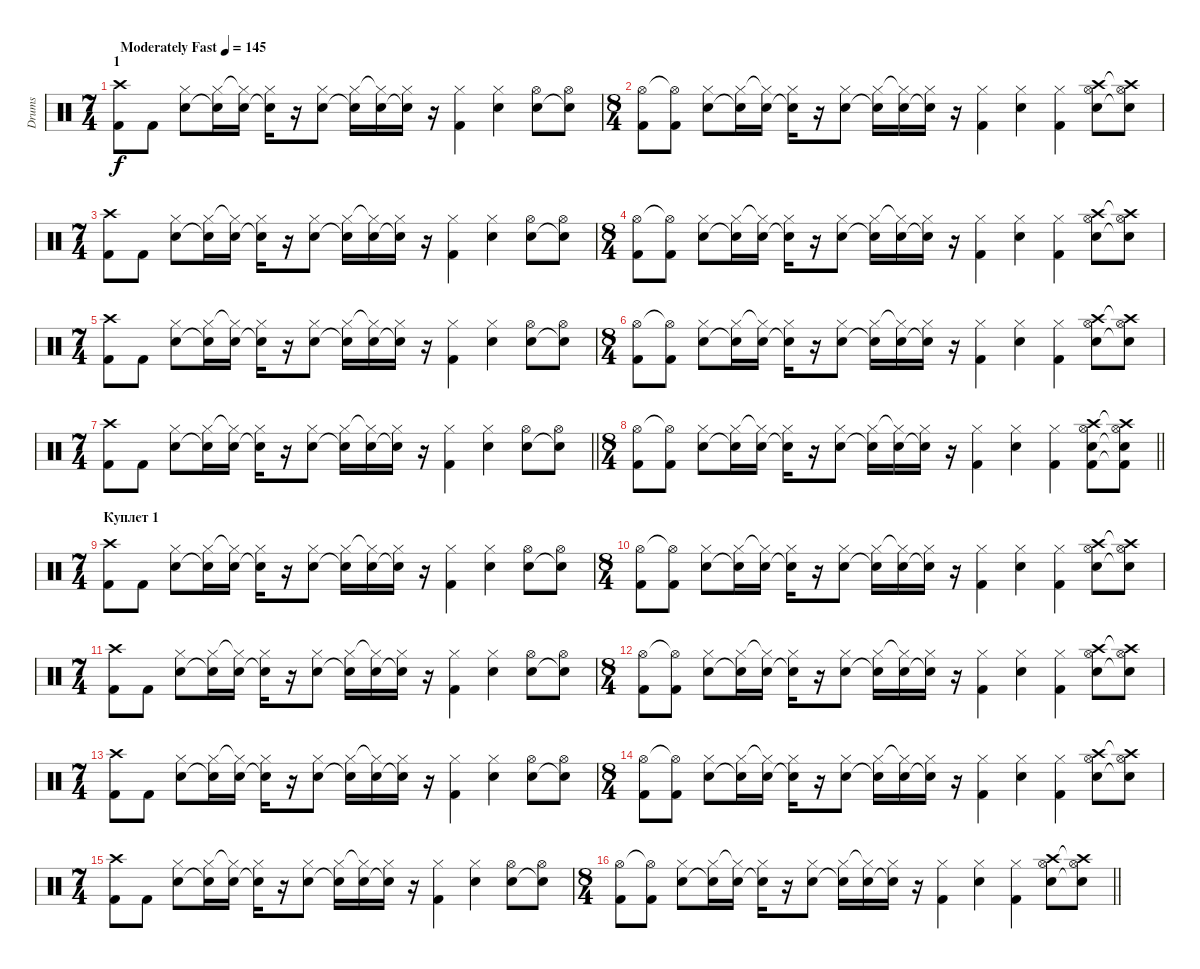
\track ("Drums" "Drums") {instrument percussion}
\staff {score}
\articulation defaults
\ts (7 4)
\section ("" "1")
\tempo (145 "Moderately Fast")
\clef neutral
\ks c
("Crash high (hit)" "Kick (hit) 2").8{dy f} "Kick (hit) 2".8 ("Hi-Hat (closed)" "Electric Snare (hit)").8 ("Hi-Hat (closed)" "Electric Snare (hit)"{t}).16 ("Hi-Hat (closed)"{t} "Electric Snare (hit)").16 ("Hi-Hat (closed)" "Electric Snare (hit)"{t}).16 r.16 ("Hi-Hat (closed)" "Electric Snare (hit)").8 ("Hi-Hat (closed)" "Electric Snare (hit)"{t}).16 ("Hi-Hat (closed)"{t} "Electric Snare (hit)").16 ("Hi-Hat (closed)" "Electric Snare (hit)"{t}).16 r.16 ("Hi-Hat (closed)" "Kick (hit) 2").4 ("Hi-Hat (closed)" "Electric Snare (hit)").4 ("Hi-Hat (open)" "Electric Snare (hit)").8 ("Hi-Hat (open)" "Electric Snare (hit)"{t}).8 |
\ts (8 4)
("Hi-Hat (open)" "Kick (hit) 2").8 ("Hi-Hat (open)"{t} "Kick (hit) 2").8 ("Hi-Hat (closed)" "Electric Snare (hit)").8 ("Hi-Hat (closed)" "Electric Snare (hit)"{t}).16 ("Hi-Hat (closed)"{t} "Electric Snare (hit)").16 ("Hi-Hat (closed)" "Electric Snare (hit)"{t}).16 r.16 ("Hi-Hat (closed)" "Electric Snare (hit)").8 ("Hi-Hat (closed)" "Electric Snare (hit)"{t}).16 ("Hi-Hat (closed)"{t} "Electric Snare (hit)").16 ("Hi-Hat (closed)" "Electric Snare (hit)"{t}).16 r.16 ("Hi-Hat (closed)" "Kick (hit) 2").4 ("Hi-Hat (closed)" "Electric Snare (hit)").4 ("Hi-Hat (closed)" "Kick (hit) 2").4 ("Crash high (hit)" "Hi-Hat (open)" "Electric Snare (hit)").8 ("Crash high (hit)"{t} "Hi-Hat (open)" "Electric Snare (hit)"{t}).8 |
\ts (7 4)
("Crash high (hit)" "Kick (hit) 2").8 "Kick (hit) 2".8 ("Hi-Hat (closed)" "Electric Snare (hit)").8 ("Hi-Hat (closed)" "Electric Snare (hit)"{t}).16 ("Hi-Hat (closed)"{t} "Electric Snare (hit)").16 ("Hi-Hat (closed)" "Electric Snare (hit)"{t}).16 r.16 ("Hi-Hat (closed)" "Electric Snare (hit)").8 ("Hi-Hat (closed)" "Electric Snare (hit)"{t}).16 ("Hi-Hat (closed)"{t} "Electric Snare (hit)").16 ("Hi-Hat (closed)" "Electric Snare (hit)"{t}).16 r.16 ("Hi-Hat (closed)" "Kick (hit) 2").4 ("Hi-Hat (closed)" "Electric Snare (hit)").4 ("Hi-Hat (open)" "Electric Snare (hit)").8 ("Hi-Hat (open)" "Electric Snare (hit)"{t}).8 |
\ts (8 4)
("Hi-Hat (open)" "Kick (hit) 2").8 ("Hi-Hat (open)"{t} "Kick (hit) 2").8 ("Hi-Hat (closed)" "Electric Snare (hit)").8 ("Hi-Hat (closed)" "Electric Snare (hit)"{t}).16 ("Hi-Hat (closed)"{t} "Electric Snare (hit)").16 ("Hi-Hat (closed)" "Electric Snare (hit)"{t}).16 r.16 ("Hi-Hat (closed)" "Electric Snare (hit)").8 ("Hi-Hat (closed)" "Electric Snare (hit)"{t}).16 ("Hi-Hat (closed)"{t} "Electric Snare (hit)").16 ("Hi-Hat (closed)" "Electric Snare (hit)"{t}).16 r.16 ("Hi-Hat (closed)" "Kick (hit) 2").4 ("Hi-Hat (closed)" "Electric Snare (hit)").4 ("Hi-Hat (closed)" "Kick (hit) 2").4 ("Crash high (hit)" "Hi-Hat (open)" "Electric Snare (hit)").8 ("Crash high (hit)"{t} "Hi-Hat (open)" "Electric Snare (hit)"{t}).8 |
\ts (7 4)
("Crash high (hit)" "Kick (hit) 2").8 "Kick (hit) 2".8 ("Hi-Hat (closed)" "Electric Snare (hit)").8 ("Hi-Hat (closed)" "Electric Snare (hit)"{t}).16 ("Hi-Hat (closed)"{t} "Electric Snare (hit)").16 ("Hi-Hat (closed)" "Electric Snare (hit)"{t}).16 r.16 ("Hi-Hat (closed)" "Electric Snare (hit)").8 ("Hi-Hat (closed)" "Electric Snare (hit)"{t}).16 ("Hi-Hat (closed)"{t} "Electric Snare (hit)").16 ("Hi-Hat (closed)" "Electric Snare (hit)"{t}).16 r.16 ("Hi-Hat (closed)" "Kick (hit) 2").4 ("Hi-Hat (closed)" "Electric Snare (hit)").4 ("Hi-Hat (open)" "Electric Snare (hit)").8 ("Hi-Hat (open)" "Electric Snare (hit)"{t}).8 |
\ts (8 4)
("Hi-Hat (open)" "Kick (hit) 2").8 ("Hi-Hat (open)"{t} "Kick (hit) 2").8 ("Hi-Hat (closed)" "Electric Snare (hit)").8 ("Hi-Hat (closed)" "Electric Snare (hit)"{t}).16 ("Hi-Hat (closed)"{t} "Electric Snare (hit)").16 ("Hi-Hat (closed)" "Electric Snare (hit)"{t}).16 r.16 ("Hi-Hat (closed)" "Electric Snare (hit)").8 ("Hi-Hat (closed)" "Electric Snare (hit)"{t}).16 ("Hi-Hat (closed)"{t} "Electric Snare (hit)").16 ("Hi-Hat (closed)" "Electric Snare (hit)"{t}).16 r.16 ("Hi-Hat (closed)" "Kick (hit) 2").4 ("Hi-Hat (closed)" "Electric Snare (hit)").4 ("Hi-Hat (closed)" "Kick (hit) 2").4 ("Crash high (hit)" "Hi-Hat (open)" "Electric Snare (hit)").8 ("Crash high (hit)"{t} "Hi-Hat (open)" "Electric Snare (hit)"{t}).8 |
\ts (7 4)
\barLineRight lightlight
("Crash high (hit)" "Kick (hit) 2").8 "Kick (hit) 2".8 ("Hi-Hat (closed)" "Electric Snare (hit)").8 ("Hi-Hat (closed)" "Electric Snare (hit)"{t}).16 ("Hi-Hat (closed)"{t} "Electric Snare (hit)").16 ("Hi-Hat (closed)" "Electric Snare (hit)"{t}).16 r.16 ("Hi-Hat (closed)" "Electric Snare (hit)").8 ("Hi-Hat (closed)" "Electric Snare (hit)"{t}).16 ("Hi-Hat (closed)"{t} "Electric Snare (hit)").16 ("Hi-Hat (closed)" "Electric Snare (hit)"{t}).16 r.16 ("Hi-Hat (closed)" "Kick (hit) 2").4 ("Hi-Hat (closed)" "Electric Snare (hit)").4 ("Hi-Hat (open)" "Electric Snare (hit)").8 ("Hi-Hat (open)" "Electric Snare (hit)"{t}).8 |
\ts (8 4)
\barLineRight lightlight
("Hi-Hat (open)" "Kick (hit) 2").8 ("Hi-Hat (open)"{t} "Kick (hit) 2").8 ("Hi-Hat (closed)" "Electric Snare (hit)").8 ("Hi-Hat (closed)" "Electric Snare (hit)"{t}).16 ("Hi-Hat (closed)"{t} "Electric Snare (hit)").16 ("Hi-Hat (closed)" "Electric Snare (hit)"{t}).16 r.16 ("Hi-Hat (closed)" "Electric Snare (hit)").8 ("Hi-Hat (closed)" "Electric Snare (hit)"{t}).16 ("Hi-Hat (closed)"{t} "Electric Snare (hit)").16 ("Hi-Hat (closed)" "Electric Snare (hit)"{t}).16 r.16 ("Hi-Hat (closed)" "Kick (hit) 2").4 ("Hi-Hat (closed)" "Electric Snare (hit)").4 ("Hi-Hat (closed)" "Kick (hit) 2").4 ("Crash high (hit)" "Hi-Hat (open)" "Electric Snare (hit)" "Kick (hit) 2").8 ("Crash high (hit)"{t} "Hi-Hat (open)" "Electric Snare (hit)"{t} "Kick (hit) 2"{t}).8 |
\ts (7 4)
\section ("" "Куплет 1")
("Crash high (hit)" "Kick (hit) 2").8 "Kick (hit) 2".8 ("Hi-Hat (closed)" "Electric Snare (hit)").8 ("Hi-Hat (closed)" "Electric Snare (hit)"{t}).16 ("Hi-Hat (closed)"{t} "Electric Snare (hit)").16 ("Hi-Hat (closed)" "Electric Snare (hit)"{t}).16 r.16 ("Hi-Hat (closed)" "Electric Snare (hit)").8 ("Hi-Hat (closed)" "Electric Snare (hit)"{t}).16 ("Hi-Hat (closed)"{t} "Electric Snare (hit)").16 ("Hi-Hat (closed)" "Electric Snare (hit)"{t}).16 r.16 ("Hi-Hat (closed)" "Kick (hit) 2").4 ("Hi-Hat (closed)" "Electric Snare (hit)").4 ("Hi-Hat (open)" "Electric Snare (hit)").8 ("Hi-Hat (open)" "Electric Snare (hit)"{t}).8 |
\ts (8 4)
("Hi-Hat (open)" "Kick (hit) 2").8 ("Hi-Hat (open)"{t} "Kick (hit) 2").8 ("Hi-Hat (closed)" "Electric Snare (hit)").8 ("Hi-Hat (closed)" "Electric Snare (hit)"{t}).16 ("Hi-Hat (closed)"{t} "Electric Snare (hit)").16 ("Hi-Hat (closed)" "Electric Snare (hit)"{t}).16 r.16 ("Hi-Hat (closed)" "Electric Snare (hit)").8 ("Hi-Hat (closed)" "Electric Snare (hit)"{t}).16 ("Hi-Hat (closed)"{t} "Electric Snare (hit)").16 ("Hi-Hat (closed)" "Electric Snare (hit)"{t}).16 r.16 ("Hi-Hat (closed)" "Kick (hit) 2").4 ("Hi-Hat (closed)" "Electric Snare (hit)").4 ("Hi-Hat (closed)" "Kick (hit) 2").4 ("Crash high (hit)" "Hi-Hat (open)" "Electric Snare (hit)").8 ("Crash high (hit)"{t} "Hi-Hat (open)" "Electric Snare (hit)"{t}).8 |
\ts (7 4)
("Crash high (hit)" "Kick (hit) 2").8 "Kick (hit) 2".8 ("Hi-Hat (closed)" "Electric Snare (hit)").8 ("Hi-Hat (closed)" "Electric Snare (hit)"{t}).16 ("Hi-Hat (closed)"{t} "Electric Snare (hit)").16 ("Hi-Hat (closed)" "Electric Snare (hit)"{t}).16 r.16 ("Hi-Hat (closed)" "Electric Snare (hit)").8 ("Hi-Hat (closed)" "Electric Snare (hit)"{t}).16 ("Hi-Hat (closed)"{t} "Electric Snare (hit)").16 ("Hi-Hat (closed)" "Electric Snare (hit)"{t}).16 r.16 ("Hi-Hat (closed)" "Kick (hit) 2").4 ("Hi-Hat (closed)" "Electric Snare (hit)").4 ("Hi-Hat (open)" "Electric Snare (hit)").8 ("Hi-Hat (open)" "Electric Snare (hit)"{t}).8 |
\ts (8 4)
("Hi-Hat (open)" "Kick (hit) 2").8 ("Hi-Hat (open)"{t} "Kick (hit) 2").8 ("Hi-Hat (closed)" "Electric Snare (hit)").8 ("Hi-Hat (closed)" "Electric Snare (hit)"{t}).16 ("Hi-Hat (closed)"{t} "Electric Snare (hit)").16 ("Hi-Hat (closed)" "Electric Snare (hit)"{t}).16 r.16 ("Hi-Hat (closed)" "Electric Snare (hit)").8 ("Hi-Hat (closed)" "Electric Snare (hit)"{t}).16 ("Hi-Hat (closed)"{t} "Electric Snare (hit)").16 ("Hi-Hat (closed)" "Electric Snare (hit)"{t}).16 r.16 ("Hi-Hat (closed)" "Kick (hit) 2").4 ("Hi-Hat (closed)" "Electric Snare (hit)").4 ("Hi-Hat (closed)" "Kick (hit) 2").4 ("Crash high (hit)" "Hi-Hat (open)" "Electric Snare (hit)").8 ("Crash high (hit)"{t} "Hi-Hat (open)" "Electric Snare (hit)"{t}).8 |
\ts (7 4)
("Crash high (hit)" "Kick (hit) 2").8 "Kick (hit) 2".8 ("Hi-Hat (closed)" "Electric Snare (hit)").8 ("Hi-Hat (closed)" "Electric Snare (hit)"{t}).16 ("Hi-Hat (closed)"{t} "Electric Snare (hit)").16 ("Hi-Hat (closed)" "Electric Snare (hit)"{t}).16 r.16 ("Hi-Hat (closed)" "Electric Snare (hit)").8 ("Hi-Hat (closed)" "Electric Snare (hit)"{t}).16 ("Hi-Hat (closed)"{t} "Electric Snare (hit)").16 ("Hi-Hat (closed)" "Electric Snare (hit)"{t}).16 r.16 ("Hi-Hat (closed)" "Kick (hit) 2").4 ("Hi-Hat (closed)" "Electric Snare (hit)").4 ("Hi-Hat (open)" "Electric Snare (hit)").8 ("Hi-Hat (open)" "Electric Snare (hit)"{t}).8 |
\ts (8 4)
("Hi-Hat (open)" "Kick (hit) 2").8 ("Hi-Hat (open)"{t} "Kick (hit) 2").8 ("Hi-Hat (closed)" "Electric Snare (hit)").8 ("Hi-Hat (closed)" "Electric Snare (hit)"{t}).16 ("Hi-Hat (closed)"{t} "Electric Snare (hit)").16 ("Hi-Hat (closed)" "Electric Snare (hit)"{t}).16 r.16 ("Hi-Hat (closed)" "Electric Snare (hit)").8 ("Hi-Hat (closed)" "Electric Snare (hit)"{t}).16 ("Hi-Hat (closed)"{t} "Electric Snare (hit)").16 ("Hi-Hat (closed)" "Electric Snare (hit)"{t}).16 r.16 ("Hi-Hat (closed)" "Kick (hit) 2").4 ("Hi-Hat (closed)" "Electric Snare (hit)").4 ("Hi-Hat (closed)" "Kick (hit) 2").4 ("Crash high (hit)" "Hi-Hat (open)" "Electric Snare (hit)").8 ("Crash high (hit)"{t} "Hi-Hat (open)" "Electric Snare (hit)"{t}).8 |
\ts (7 4)
("Crash high (hit)" "Kick (hit) 2").8 "Kick (hit) 2".8 ("Hi-Hat (closed)" "Electric Snare (hit)").8 ("Hi-Hat (closed)" "Electric Snare (hit)"{t}).16 ("Hi-Hat (closed)"{t} "Electric Snare (hit)").16 ("Hi-Hat (closed)" "Electric Snare (hit)"{t}).16 r.16 ("Hi-Hat (closed)" "Electric Snare (hit)").8 ("Hi-Hat (closed)" "Electric Snare (hit)"{t}).16 ("Hi-Hat (closed)"{t} "Electric Snare (hit)").16 ("Hi-Hat (closed)" "Electric Snare (hit)"{t}).16 r.16 ("Hi-Hat (closed)" "Kick (hit) 2").4 ("Hi-Hat (closed)" "Electric Snare (hit)").4 ("Hi-Hat (open)" "Electric Snare (hit)").8 ("Hi-Hat (open)" "Electric Snare (hit)"{t}).8 |
\ts (8 4)
\barLineRight lightlight
("Hi-Hat (open)" "Kick (hit) 2").8 ("Hi-Hat (open)"{t} "Kick (hit) 2").8 ("Hi-Hat (closed)" "Electric Snare (hit)").8 ("Hi-Hat (closed)" "Electric Snare (hit)"{t}).16 ("Hi-Hat (closed)"{t} "Electric Snare (hit)").16 ("Hi-Hat (closed)" "Electric Snare (hit)"{t}).16 r.16 ("Hi-Hat (closed)" "Electric Snare (hit)").8 ("Hi-Hat (closed)" "Electric Snare (hit)"{t}).16 ("Hi-Hat (closed)"{t} "Electric Snare (hit)").16 ("Hi-Hat (closed)" "Electric Snare (hit)"{t}).16 r.16 ("Hi-Hat (closed)" "Kick (hit) 2").4 ("Hi-Hat (closed)" "Electric Snare (hit)").4 ("Hi-Hat (closed)" "Kick (hit) 2").4 ("Crash high (hit)" "Hi-Hat (open)" "Electric Snare (hit)").8 ("Crash high (hit)"{t} "Hi-Hat (open)" "Electric Snare (hit)"{t}).8
